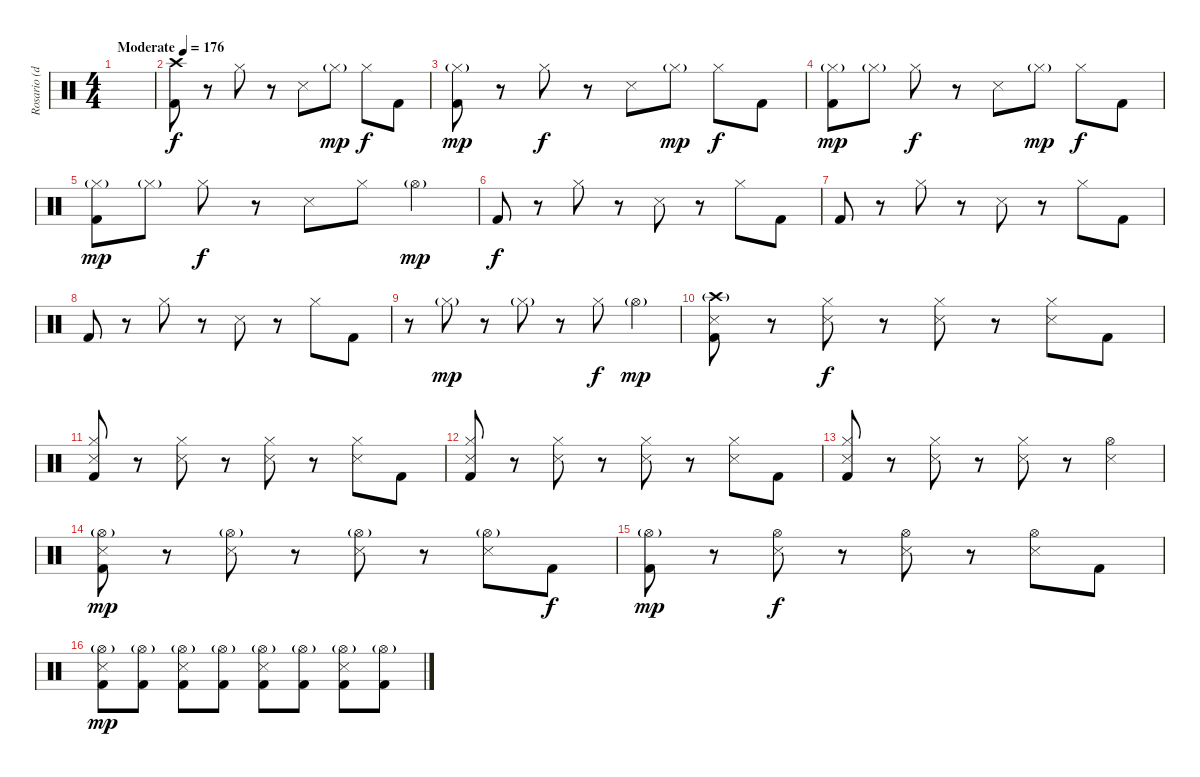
\track ("Rosario (drum)" "Rosario (d") {instrument percussion}
\staff {score}
\articulation defaults
\ts (4 4)
\tempo (176 "Moderate")
\clef neutral
\ks c
|
("Crash high (hit)" "Kick (hit) 2").8 r.8 "Hi-Hat (closed)".8 r.8 "Snare (side stick) 3".8 "Hi-Hat (closed)"{g}.8{dy mp} "Hi-Hat (closed)".8{dy f} "Kick (hit) 2".8 |
("Hi-Hat (closed)"{g} "Kick (hit) 2").8{dy mp} r.8 "Hi-Hat (closed)".8{dy f} r.8 "Snare (side stick) 3".8 "Hi-Hat (closed)"{g}.8{dy mp} "Hi-Hat (closed)".8{dy f} "Kick (hit) 2".8 |
("Hi-Hat (closed)"{g} "Kick (hit) 2").8{dy mp} "Hi-Hat (closed)"{g}.8 "Hi-Hat (closed)".8{dy f} r.8 "Snare (side stick) 3".8 "Hi-Hat (closed)"{g}.8{dy mp} "Hi-Hat (closed)".8{dy f} "Kick (hit) 2".8 |
("Hi-Hat (closed)"{g} "Kick (hit) 2").8{dy mp} "Hi-Hat (closed)"{g}.8 "Hi-Hat (closed)".8{dy f} r.8 "Snare (side stick) 3".8 "Hi-Hat (closed)".8 "Hi-Hat (open)"{g}.4{dy mp} |
"Kick (hit) 2".8{dy f} r.8 "Hi-Hat (closed)".8 r.8 "Snare (side stick) 3".8 r.8 "Hi-Hat (closed)".8 "Kick (hit) 2".8 |
"Kick (hit) 2".8 r.8 "Hi-Hat (closed)".8 r.8 "Snare (side stick) 3".8 r.8 "Hi-Hat (closed)".8 "Kick (hit) 2".8 |
"Kick (hit) 2".8 r.8 "Hi-Hat (closed)".8 r.8 "Snare (side stick) 3".8 r.8 "Hi-Hat (closed)".8 "Kick (hit) 2".8 |
r.8 "Hi-Hat (closed)"{g}.8{dy mp} r.8 "Hi-Hat (closed)"{g}.8 r.8 "Hi-Hat (closed)".8{dy f} "Hi-Hat (open)"{g}.4{dy mp} |
("Crash high (hit)"{g} "Snare (side stick) 3" "Kick (hit) 2").8 r.8 ("Hi-Hat (closed)" "Snare (side stick) 3").8{dy f} r.8 ("Hi-Hat (closed)" "Snare (side stick) 3").8 r.8 ("Hi-Hat (closed)" "Snare (side stick) 3").8 "Kick (hit) 2".8 |
("Hi-Hat (closed)" "Snare (side stick) 3" "Kick (hit) 2").8 r.8 ("Hi-Hat (closed)" "Snare (side stick) 3").8 r.8 ("Hi-Hat (closed)" "Snare (side stick) 3").8 r.8 ("Hi-Hat (closed)" "Snare (side stick) 3").8 "Kick (hit) 2".8 |
("Hi-Hat (closed)" "Snare (side stick) 3" "Kick (hit) 2").8 r.8 ("Hi-Hat (closed)" "Snare (side stick) 3").8 r.8 ("Hi-Hat (closed)" "Snare (side stick) 3").8 r.8 ("Hi-Hat (closed)" "Snare (side stick) 3").8 "Kick (hit) 2".8 |
("Hi-Hat (closed)" "Snare (side stick) 3" "Kick (hit) 2").8 r.8 ("Hi-Hat (closed)" "Snare (side stick) 3").8 r.8 ("Hi-Hat (closed)" "Snare (side stick) 3").8 r.8 ("Hi-Hat (open)" "Snare (side stick) 3").4 |
("Hi-Hat (open)"{g} "Snare (side stick) 3" "Kick (hit) 2").8{dy mp} r.8 ("Hi-Hat (open)"{g} "Snare (side stick) 3").8 r.8 ("Hi-Hat (open)"{g} "Snare (side stick) 3").8 r.8 ("Hi-Hat (open)"{g} "Snare (side stick) 3").8 "Kick (hit) 2".8{dy f} |
("Hi-Hat (open)"{g} "Kick (hit) 2").8{dy mp} r.8 ("Hi-Hat (open)" "Snare (side stick) 3").8{dy f} r.8 ("Hi-Hat (open)" "Snare (side stick) 3").8 r.8 ("Hi-Hat (open)" "Snare (side stick) 3").8 "Kick (hit) 2".8 |
("Hi-Hat (open)"{g} "Snare (side stick) 3" "Kick (hit) 2").8{dy mp} ("Hi-Hat (open)"{g} "Kick (hit) 2").8 ("Hi-Hat (open)"{g} "Snare (side stick) 3" "Kick (hit) 2").8 ("Hi-Hat (open)"{g} "Kick (hit) 2").8 ("Hi-Hat (open)"{g} "Snare (side stick) 3" "Kick (hit) 2").8 ("Hi-Hat (open)"{g} "Kick (hit) 2").8 ("Hi-Hat (open)"{g} "Snare (side stick) 3" "Kick (hit) 2").8 ("Hi-Hat (open)"{g} "Kick (hit) 2").8
